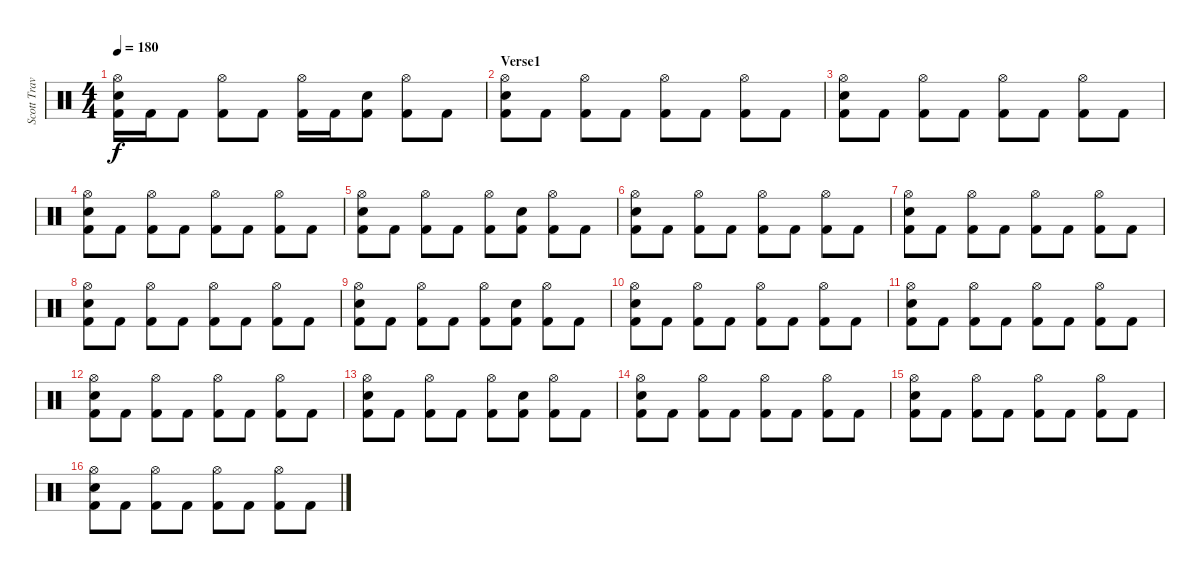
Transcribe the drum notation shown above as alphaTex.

\track ("Scott Travis" "Scott Trav") {instrument percussion}
\staff {score}
\articulation defaults
\ts (4 4)
\tempo 180
\clef neutral
\ks c
("Hi-Hat (open)" "Snare (hit) 2" "Kick (hit) 2").16{dy f} "Kick (hit) 2".16 "Kick (hit) 2".8 ("Hi-Hat (open)" "Kick (hit) 2").8 "Kick (hit) 2".8 ("Hi-Hat (open)" "Kick (hit) 2").16 "Kick (hit) 2".16 ("Snare (hit) 2" "Kick (hit) 2").8 ("Hi-Hat (open)" "Kick (hit) 2").8 "Kick (hit) 2".8 |
\section ("" "Verse1")
("Hi-Hat (open)" "Snare (hit) 2" "Kick (hit) 2").8 "Kick (hit) 2".8 ("Hi-Hat (open)" "Kick (hit) 2").8 "Kick (hit) 2".8 ("Hi-Hat (open)" "Kick (hit) 2").8 "Kick (hit) 2".8 ("Hi-Hat (open)" "Kick (hit) 2").8 "Kick (hit) 2".8 |
("Hi-Hat (open)" "Snare (hit) 2" "Kick (hit) 2").8 "Kick (hit) 2".8 ("Hi-Hat (open)" "Kick (hit) 2").8 "Kick (hit) 2".8 ("Hi-Hat (open)" "Kick (hit) 2").8 "Kick (hit) 2".8 ("Hi-Hat (open)" "Kick (hit) 2").8 "Kick (hit) 2".8 |
("Hi-Hat (open)" "Snare (hit) 2" "Kick (hit) 2").8 "Kick (hit) 2".8 ("Hi-Hat (open)" "Kick (hit) 2").8 "Kick (hit) 2".8 ("Hi-Hat (open)" "Kick (hit) 2").8 "Kick (hit) 2".8 ("Hi-Hat (open)" "Kick (hit) 2").8 "Kick (hit) 2".8 |
("Hi-Hat (open)" "Snare (hit) 2" "Kick (hit) 2").8 "Kick (hit) 2".8 ("Hi-Hat (open)" "Kick (hit) 2").8 "Kick (hit) 2".8 ("Hi-Hat (open)" "Kick (hit) 2").8 ("Snare (hit) 2" "Kick (hit) 2").8 ("Hi-Hat (open)" "Kick (hit) 2").8 "Kick (hit) 2".8 |
("Hi-Hat (open)" "Snare (hit) 2" "Kick (hit) 2").8 "Kick (hit) 2".8 ("Hi-Hat (open)" "Kick (hit) 2").8 "Kick (hit) 2".8 ("Hi-Hat (open)" "Kick (hit) 2").8 "Kick (hit) 2".8 ("Hi-Hat (open)" "Kick (hit) 2").8 "Kick (hit) 2".8 |
("Hi-Hat (open)" "Snare (hit) 2" "Kick (hit) 2").8 "Kick (hit) 2".8 ("Hi-Hat (open)" "Kick (hit) 2").8 "Kick (hit) 2".8 ("Hi-Hat (open)" "Kick (hit) 2").8 "Kick (hit) 2".8 ("Hi-Hat (open)" "Kick (hit) 2").8 "Kick (hit) 2".8 |
("Hi-Hat (open)" "Snare (hit) 2" "Kick (hit) 2").8 "Kick (hit) 2".8 ("Hi-Hat (open)" "Kick (hit) 2").8 "Kick (hit) 2".8 ("Hi-Hat (open)" "Kick (hit) 2").8 "Kick (hit) 2".8 ("Hi-Hat (open)" "Kick (hit) 2").8 "Kick (hit) 2".8 |
("Hi-Hat (open)" "Snare (hit) 2" "Kick (hit) 2").8 "Kick (hit) 2".8 ("Hi-Hat (open)" "Kick (hit) 2").8 "Kick (hit) 2".8 ("Hi-Hat (open)" "Kick (hit) 2").8 ("Snare (hit) 2" "Kick (hit) 2").8 ("Hi-Hat (open)" "Kick (hit) 2").8 "Kick (hit) 2".8 |
("Hi-Hat (open)" "Snare (hit) 2" "Kick (hit) 2").8 "Kick (hit) 2".8 ("Hi-Hat (open)" "Kick (hit) 2").8 "Kick (hit) 2".8 ("Hi-Hat (open)" "Kick (hit) 2").8 "Kick (hit) 2".8 ("Hi-Hat (open)" "Kick (hit) 2").8 "Kick (hit) 2".8 |
("Hi-Hat (open)" "Snare (hit) 2" "Kick (hit) 2").8 "Kick (hit) 2".8 ("Hi-Hat (open)" "Kick (hit) 2").8 "Kick (hit) 2".8 ("Hi-Hat (open)" "Kick (hit) 2").8 "Kick (hit) 2".8 ("Hi-Hat (open)" "Kick (hit) 2").8 "Kick (hit) 2".8 |
("Hi-Hat (open)" "Snare (hit) 2" "Kick (hit) 2").8 "Kick (hit) 2".8 ("Hi-Hat (open)" "Kick (hit) 2").8 "Kick (hit) 2".8 ("Hi-Hat (open)" "Kick (hit) 2").8 "Kick (hit) 2".8 ("Hi-Hat (open)" "Kick (hit) 2").8 "Kick (hit) 2".8 |
("Hi-Hat (open)" "Snare (hit) 2" "Kick (hit) 2").8 "Kick (hit) 2".8 ("Hi-Hat (open)" "Kick (hit) 2").8 "Kick (hit) 2".8 ("Hi-Hat (open)" "Kick (hit) 2").8 ("Snare (hit) 2" "Kick (hit) 2").8 ("Hi-Hat (open)" "Kick (hit) 2").8 "Kick (hit) 2".8 |
("Hi-Hat (open)" "Snare (hit) 2" "Kick (hit) 2").8 "Kick (hit) 2".8 ("Hi-Hat (open)" "Kick (hit) 2").8 "Kick (hit) 2".8 ("Hi-Hat (open)" "Kick (hit) 2").8 "Kick (hit) 2".8 ("Hi-Hat (open)" "Kick (hit) 2").8 "Kick (hit) 2".8 |
("Hi-Hat (open)" "Snare (hit) 2" "Kick (hit) 2").8 "Kick (hit) 2".8 ("Hi-Hat (open)" "Kick (hit) 2").8 "Kick (hit) 2".8 ("Hi-Hat (open)" "Kick (hit) 2").8 "Kick (hit) 2".8 ("Hi-Hat (open)" "Kick (hit) 2").8 "Kick (hit) 2".8 |
("Hi-Hat (open)" "Snare (hit) 2" "Kick (hit) 2").8 "Kick (hit) 2".8 ("Hi-Hat (open)" "Kick (hit) 2").8 "Kick (hit) 2".8 ("Hi-Hat (open)" "Kick (hit) 2").8 "Kick (hit) 2".8 ("Hi-Hat (open)" "Kick (hit) 2").8 "Kick (hit) 2".8
